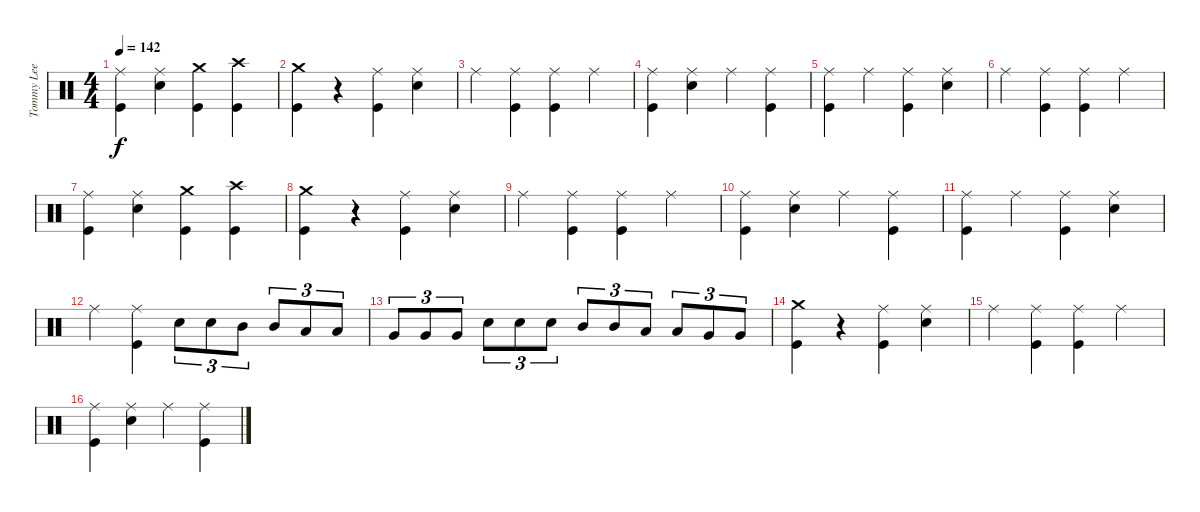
\track ("Tommy Lee" "Tommy Lee") {instrument percussion}
\staff {score}
\articulation defaults
\ts (4 4)
\tempo 142
\clef neutral
\ks c
("Ride (middle)" "Kick (hit)").4{dy f} ("Ride (middle)" "Snare (hit) 2").4 ("Crash medium (hit)" "Kick (hit)").4 ("Crash high (hit)" "Kick (hit)").4 |
("Crash medium (hit)" "Kick (hit)").4 r.4 ("Ride (middle)" "Kick (hit)").4 ("Ride (middle)" "Snare (hit) 2").4 |
"Ride (middle)".4 ("Ride (middle)" "Kick (hit)").4 ("Ride (middle)" "Kick (hit)").4 "Ride (middle)".4 |
("Ride (middle)" "Kick (hit)").4 ("Ride (middle)" "Snare (hit) 2").4 "Ride (middle)".4 ("Ride (middle)" "Kick (hit)").4 |
("Ride (middle)" "Kick (hit)").4 "Ride (middle)".4 ("Ride (middle)" "Kick (hit)").4 ("Ride (middle)" "Snare (hit) 2").4 |
"Ride (middle)".4 ("Ride (middle)" "Kick (hit)").4 ("Ride (middle)" "Kick (hit)").4 "Ride (middle)".4 |
("Ride (middle)" "Kick (hit)").4 ("Ride (middle)" "Snare (hit) 2").4 ("Crash medium (hit)" "Kick (hit)").4 ("Crash high (hit)" "Kick (hit)").4 |
("Crash medium (hit)" "Kick (hit)").4 r.4 ("Ride (middle)" "Kick (hit)").4 ("Ride (middle)" "Snare (hit) 2").4 |
"Ride (middle)".4 ("Ride (middle)" "Kick (hit)").4 ("Ride (middle)" "Kick (hit)").4 "Ride (middle)".4 |
("Ride (middle)" "Kick (hit)").4 ("Ride (middle)" "Snare (hit) 2").4 "Ride (middle)".4 ("Ride (middle)" "Kick (hit)").4 |
("Ride (middle)" "Kick (hit)").4 "Ride (middle)".4 ("Ride (middle)" "Kick (hit)").4 ("Ride (middle)" "Snare (hit) 2").4 |
"Ride (middle)".4 ("Ride (middle)" "Kick (hit)").4 "Snare (hit) 2".8{tu (3 2)} "Snare (hit) 2".8{tu (3 2)} "Mid Tom (hit)".8{tu (3 2)} "Mid Tom (hit)".8{tu (3 2)} "Low Tom (hit)".8{tu (3 2)} "Low Tom (hit)".8{tu (3 2)} |
"Very Low Tom (hit)".8{tu (3 2)} "Very Low Tom (hit)".8{tu (3 2)} "Very Low Tom (hit)".8{tu (3 2)} "Snare (hit) 2".8{tu (3 2)} "Snare (hit) 2".8{tu (3 2)} "Snare (hit) 2".8{tu (3 2)} "Mid Tom (hit)".8{tu (3 2)} "Mid Tom (hit)".8{tu (3 2)} "Low Tom (hit)".8{tu (3 2)} "Low Tom (hit)".8{tu (3 2)} "Very Low Tom (hit)".8{tu (3 2)} "Very Low Tom (hit)".8{tu (3 2)} |
("Crash medium (hit)" "Kick (hit)").4 r.4 ("Ride (middle)" "Kick (hit)").4 ("Ride (middle)" "Snare (hit) 2").4 |
"Ride (middle)".4 ("Ride (middle)" "Kick (hit)").4 ("Ride (middle)" "Kick (hit)").4 "Ride (middle)".4 |
("Ride (middle)" "Kick (hit)").4 ("Ride (middle)" "Snare (hit) 2").4 "Ride (middle)".4 ("Ride (middle)" "Kick (hit)").4
